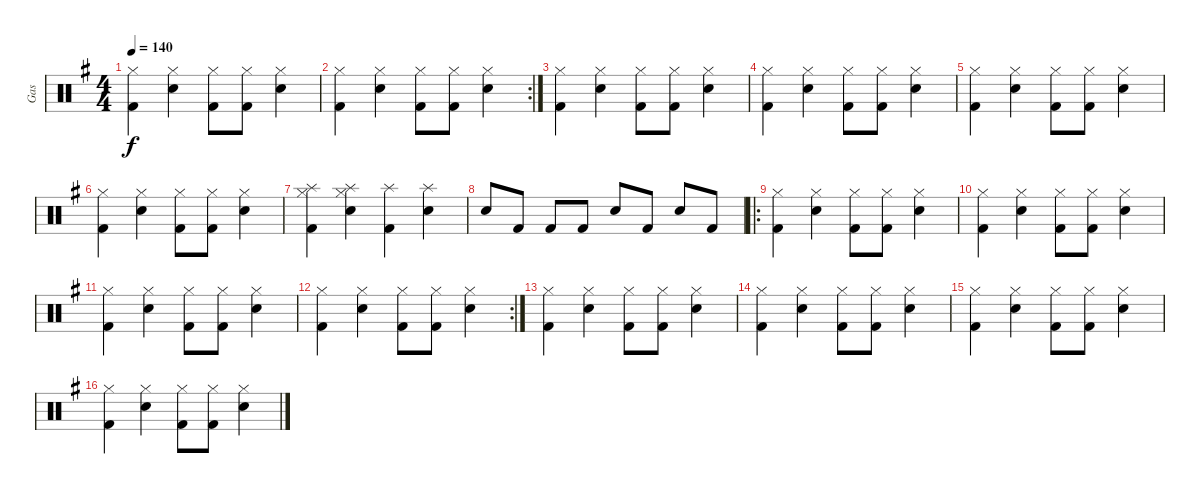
\track ("Gas" "Gas") {instrument percussion}
\staff {score}
\articulation defaults
\ts (4 4)
\tempo 140
\clef neutral
\ks eminor
("Hi-Hat (closed)" "Kick (hit) 2").4{dy f} ("Hi-Hat (closed)" "Electric Snare (hit)").4 ("Hi-Hat (closed)" "Kick (hit) 2").8 ("Hi-Hat (closed)" "Kick (hit) 2").8 ("Hi-Hat (closed)" "Electric Snare (hit)").4 |
\rc 2
("Hi-Hat (closed)" "Kick (hit) 2").4 ("Hi-Hat (closed)" "Electric Snare (hit)").4 ("Hi-Hat (closed)" "Kick (hit) 2").8 ("Hi-Hat (closed)" "Kick (hit) 2").8 ("Hi-Hat (closed)" "Electric Snare (hit)").4 |
("Hi-Hat (closed)" "Kick (hit) 2").4 ("Hi-Hat (closed)" "Electric Snare (hit)").4 ("Hi-Hat (closed)" "Kick (hit) 2").8 ("Hi-Hat (closed)" "Kick (hit) 2").8 ("Hi-Hat (closed)" "Electric Snare (hit)").4 |
("Hi-Hat (closed)" "Kick (hit) 2").4 ("Hi-Hat (closed)" "Electric Snare (hit)").4 ("Hi-Hat (closed)" "Kick (hit) 2").8 ("Hi-Hat (closed)" "Kick (hit) 2").8 ("Hi-Hat (closed)" "Electric Snare (hit)").4 |
("Hi-Hat (closed)" "Kick (hit) 2").4 ("Hi-Hat (closed)" "Electric Snare (hit)").4 ("Hi-Hat (closed)" "Kick (hit) 2").8 ("Hi-Hat (closed)" "Kick (hit) 2").8 ("Hi-Hat (closed)" "Electric Snare (hit)").4 |
("Hi-Hat (closed)" "Kick (hit) 2").4 ("Hi-Hat (closed)" "Electric Snare (hit)").4 ("Hi-Hat (closed)" "Kick (hit) 2").8 ("Hi-Hat (closed)" "Kick (hit) 2").8 ("Hi-Hat (closed)" "Electric Snare (hit)").4 |
("Splash (hit)" "Hi-Hat (closed)" "Kick (hit) 2").4 ("Splash (hit)" "Hi-Hat (closed)" "Electric Snare (hit)").4 ("Splash (hit)" "Kick (hit) 2").4 ("Splash (hit)" "Electric Snare (hit)").4 |
"Electric Snare (hit)".8 "Kick (hit) 2".8 "Kick (hit) 2".8 "Kick (hit) 2".8 "Electric Snare (hit)".8 "Kick (hit) 2".8 "Electric Snare (hit)".8 "Kick (hit) 2".8 |
\ro
("Hi-Hat (closed)" "Kick (hit) 2").4 ("Hi-Hat (closed)" "Electric Snare (hit)").4 ("Hi-Hat (closed)" "Kick (hit) 2").8 ("Hi-Hat (closed)" "Kick (hit) 2").8 ("Hi-Hat (closed)" "Electric Snare (hit)").4 |
("Hi-Hat (closed)" "Kick (hit) 2").4 ("Hi-Hat (closed)" "Electric Snare (hit)").4 ("Hi-Hat (closed)" "Kick (hit) 2").8 ("Hi-Hat (closed)" "Kick (hit) 2").8 ("Hi-Hat (closed)" "Electric Snare (hit)").4 |
("Hi-Hat (closed)" "Kick (hit) 2").4 ("Hi-Hat (closed)" "Electric Snare (hit)").4 ("Hi-Hat (closed)" "Kick (hit) 2").8 ("Hi-Hat (closed)" "Kick (hit) 2").8 ("Hi-Hat (closed)" "Electric Snare (hit)").4 |
\rc 2
("Hi-Hat (closed)" "Kick (hit) 2").4 ("Hi-Hat (closed)" "Electric Snare (hit)").4 ("Hi-Hat (closed)" "Kick (hit) 2").8 ("Hi-Hat (closed)" "Kick (hit) 2").8 ("Hi-Hat (closed)" "Electric Snare (hit)").4 |
("Hi-Hat (closed)" "Kick (hit) 2").4 ("Hi-Hat (closed)" "Electric Snare (hit)").4 ("Hi-Hat (closed)" "Kick (hit) 2").8 ("Hi-Hat (closed)" "Kick (hit) 2").8 ("Hi-Hat (closed)" "Electric Snare (hit)").4 |
("Hi-Hat (closed)" "Kick (hit) 2").4 ("Hi-Hat (closed)" "Electric Snare (hit)").4 ("Hi-Hat (closed)" "Kick (hit) 2").8 ("Hi-Hat (closed)" "Kick (hit) 2").8 ("Hi-Hat (closed)" "Electric Snare (hit)").4 |
("Hi-Hat (closed)" "Kick (hit) 2").4 ("Hi-Hat (closed)" "Electric Snare (hit)").4 ("Hi-Hat (closed)" "Kick (hit) 2").8 ("Hi-Hat (closed)" "Kick (hit) 2").8 ("Hi-Hat (closed)" "Electric Snare (hit)").4 |
("Hi-Hat (closed)" "Kick (hit) 2").4 ("Hi-Hat (closed)" "Electric Snare (hit)").4 ("Hi-Hat (closed)" "Kick (hit) 2").8 ("Hi-Hat (closed)" "Kick (hit) 2").8 ("Hi-Hat (closed)" "Electric Snare (hit)").4
